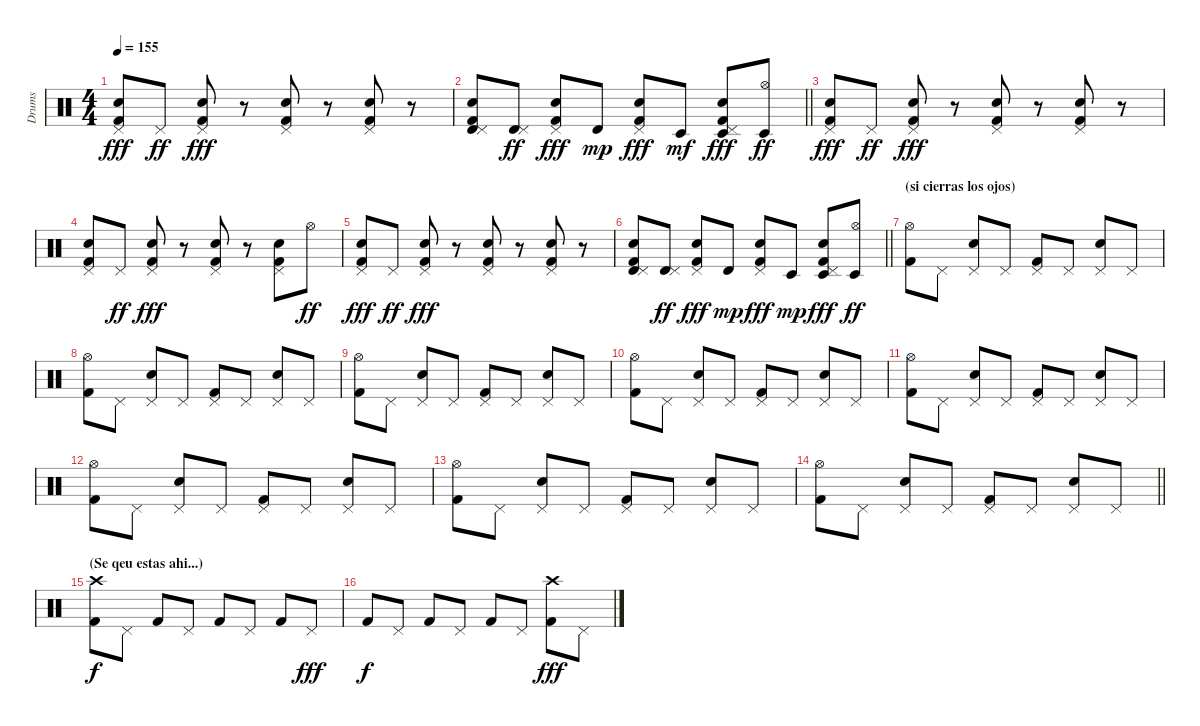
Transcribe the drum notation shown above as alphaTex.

\track ("Drums" "Drums") {instrument percussion}
\staff {score}
\articulation defaults
\ts (4 4)
\tempo 155
\clef neutral
\ks c
("Pedal Hi-Hat (hit)" "Electric Snare (hit)" "Kick (hit) 2").8{dy fff} "Pedal Hi-Hat (hit)".8{dy ff} ("Pedal Hi-Hat (hit)" "Electric Snare (hit)" "Kick (hit) 2").8{dy fff} r.8 ("Pedal Hi-Hat (hit)" "Electric Snare (hit)" "Kick (hit) 2").8 r.8 ("Pedal Hi-Hat (hit)" "Electric Snare (hit)" "Kick (hit) 2").8 r.8 |
\barLineRight lightlight
("Timbale high (hit)" "Pedal Hi-Hat (hit)" "Electric Snare (hit)" "Kick (hit) 2").8 ("Timbale high (hit)" "Pedal Hi-Hat (hit)").8{dy ff} ("Pedal Hi-Hat (hit)" "Electric Snare (hit)" "Kick (hit) 2").8{dy fff} "Timbale high (hit)".8{dy mp} ("Pedal Hi-Hat (hit)" "Electric Snare (hit)" "Kick (hit) 2").8{dy fff} "Timbale low (hit)".8{dy mf} ("Timbale low (hit)" "Pedal Hi-Hat (hit)" "Electric Snare (hit)" "Kick (hit) 2").8{dy fff} ("Timbale low (hit)" "Hi-Hat (open)").8{dy ff} |
("Pedal Hi-Hat (hit)" "Electric Snare (hit)" "Kick (hit) 2").8{dy fff} "Pedal Hi-Hat (hit)".8{dy ff} ("Pedal Hi-Hat (hit)" "Electric Snare (hit)" "Kick (hit) 2").8{dy fff} r.8 ("Pedal Hi-Hat (hit)" "Electric Snare (hit)" "Kick (hit) 2").8 r.8 ("Pedal Hi-Hat (hit)" "Electric Snare (hit)" "Kick (hit) 2").8 r.8 |
("Pedal Hi-Hat (hit)" "Electric Snare (hit)" "Kick (hit) 2").8 "Pedal Hi-Hat (hit)".8{dy ff} ("Pedal Hi-Hat (hit)" "Electric Snare (hit)" "Kick (hit) 2").8{dy fff} r.8 ("Pedal Hi-Hat (hit)" "Electric Snare (hit)" "Kick (hit) 2").8 r.8 ("Pedal Hi-Hat (hit)" "Electric Snare (hit)" "Kick (hit) 2").8 "Hi-Hat (open)".8{dy ff} |
("Pedal Hi-Hat (hit)" "Electric Snare (hit)" "Kick (hit) 2").8{dy fff} "Pedal Hi-Hat (hit)".8{dy ff} ("Pedal Hi-Hat (hit)" "Electric Snare (hit)" "Kick (hit) 2").8{dy fff} r.8 ("Pedal Hi-Hat (hit)" "Electric Snare (hit)" "Kick (hit) 2").8 r.8 ("Pedal Hi-Hat (hit)" "Electric Snare (hit)" "Kick (hit) 2").8 r.8 |
\barLineRight lightlight
("Timbale high (hit)" "Pedal Hi-Hat (hit)" "Electric Snare (hit)" "Kick (hit) 2").8 ("Timbale high (hit)" "Pedal Hi-Hat (hit)").8{dy ff} ("Pedal Hi-Hat (hit)" "Electric Snare (hit)" "Kick (hit) 2").8{dy fff} "Timbale high (hit)".8{dy mp} ("Pedal Hi-Hat (hit)" "Electric Snare (hit)" "Kick (hit) 2").8{dy fff} "Timbale low (hit)".8{dy mp} ("Timbale low (hit)" "Pedal Hi-Hat (hit)" "Electric Snare (hit)" "Kick (hit) 2").8{dy fff} ("Timbale low (hit)" "Hi-Hat (open)").8{dy ff} |
\section ("" "(si cierras los ojos)")
("Hi-Hat (open)" "Kick (hit) 2").8 "Pedal Hi-Hat (hit)".8 ("Pedal Hi-Hat (hit)" "Electric Snare (hit)").8 "Pedal Hi-Hat (hit)".8 ("Pedal Hi-Hat (hit)" "Kick (hit) 2").8 "Pedal Hi-Hat (hit)".8 ("Pedal Hi-Hat (hit)" "Electric Snare (hit)").8 "Pedal Hi-Hat (hit)".8 |
("Hi-Hat (open)" "Kick (hit) 2").8 "Pedal Hi-Hat (hit)".8 ("Pedal Hi-Hat (hit)" "Electric Snare (hit)").8 "Pedal Hi-Hat (hit)".8 ("Pedal Hi-Hat (hit)" "Kick (hit) 2").8 "Pedal Hi-Hat (hit)".8 ("Pedal Hi-Hat (hit)" "Electric Snare (hit)").8 "Pedal Hi-Hat (hit)".8 |
("Hi-Hat (open)" "Kick (hit) 2").8 "Pedal Hi-Hat (hit)".8 ("Pedal Hi-Hat (hit)" "Electric Snare (hit)").8 "Pedal Hi-Hat (hit)".8 ("Pedal Hi-Hat (hit)" "Kick (hit) 2").8 "Pedal Hi-Hat (hit)".8 ("Pedal Hi-Hat (hit)" "Electric Snare (hit)").8 "Pedal Hi-Hat (hit)".8 |
("Hi-Hat (open)" "Kick (hit) 2").8 "Pedal Hi-Hat (hit)".8 ("Pedal Hi-Hat (hit)" "Electric Snare (hit)").8 "Pedal Hi-Hat (hit)".8 ("Pedal Hi-Hat (hit)" "Kick (hit) 2").8 "Pedal Hi-Hat (hit)".8 ("Pedal Hi-Hat (hit)" "Electric Snare (hit)").8 "Pedal Hi-Hat (hit)".8 |
("Hi-Hat (open)" "Kick (hit) 2").8 "Pedal Hi-Hat (hit)".8 ("Pedal Hi-Hat (hit)" "Electric Snare (hit)").8 "Pedal Hi-Hat (hit)".8 ("Pedal Hi-Hat (hit)" "Kick (hit) 2").8 "Pedal Hi-Hat (hit)".8 ("Pedal Hi-Hat (hit)" "Electric Snare (hit)").8 "Pedal Hi-Hat (hit)".8 |
("Hi-Hat (open)" "Kick (hit) 2").8 "Pedal Hi-Hat (hit)".8 ("Pedal Hi-Hat (hit)" "Electric Snare (hit)").8 "Pedal Hi-Hat (hit)".8 ("Pedal Hi-Hat (hit)" "Kick (hit) 2").8 "Pedal Hi-Hat (hit)".8 ("Pedal Hi-Hat (hit)" "Electric Snare (hit)").8 "Pedal Hi-Hat (hit)".8 |
("Hi-Hat (open)" "Kick (hit) 2").8 "Pedal Hi-Hat (hit)".8 ("Pedal Hi-Hat (hit)" "Electric Snare (hit)").8 "Pedal Hi-Hat (hit)".8 ("Pedal Hi-Hat (hit)" "Kick (hit) 2").8 "Pedal Hi-Hat (hit)".8 ("Pedal Hi-Hat (hit)" "Electric Snare (hit)").8 "Pedal Hi-Hat (hit)".8 |
\barLineRight lightlight
("Hi-Hat (open)" "Kick (hit) 2").8 "Pedal Hi-Hat (hit)".8 ("Pedal Hi-Hat (hit)" "Electric Snare (hit)").8 "Pedal Hi-Hat (hit)".8 ("Pedal Hi-Hat (hit)" "Kick (hit) 2").8 "Pedal Hi-Hat (hit)".8 ("Pedal Hi-Hat (hit)" "Electric Snare (hit)").8 "Pedal Hi-Hat (hit)".8 |
\section ("" "(Se qeu estas ahi...)")
("Crash high (hit)" "Kick (hit) 2").8{dy f} "Pedal Hi-Hat (hit)".8 "Kick (hit) 2".8 "Pedal Hi-Hat (hit)".8 "Kick (hit) 2".8 "Pedal Hi-Hat (hit)".8 "Kick (hit) 2".8 "Pedal Hi-Hat (hit)".8{dy fff} |
"Kick (hit) 2".8{dy f} "Pedal Hi-Hat (hit)".8 "Kick (hit) 2".8 "Pedal Hi-Hat (hit)".8 "Kick (hit) 2".8 "Pedal Hi-Hat (hit)".8 ("Crash high (hit)" "Kick (hit) 2").8{dy fff} "Pedal Hi-Hat (hit)".8
